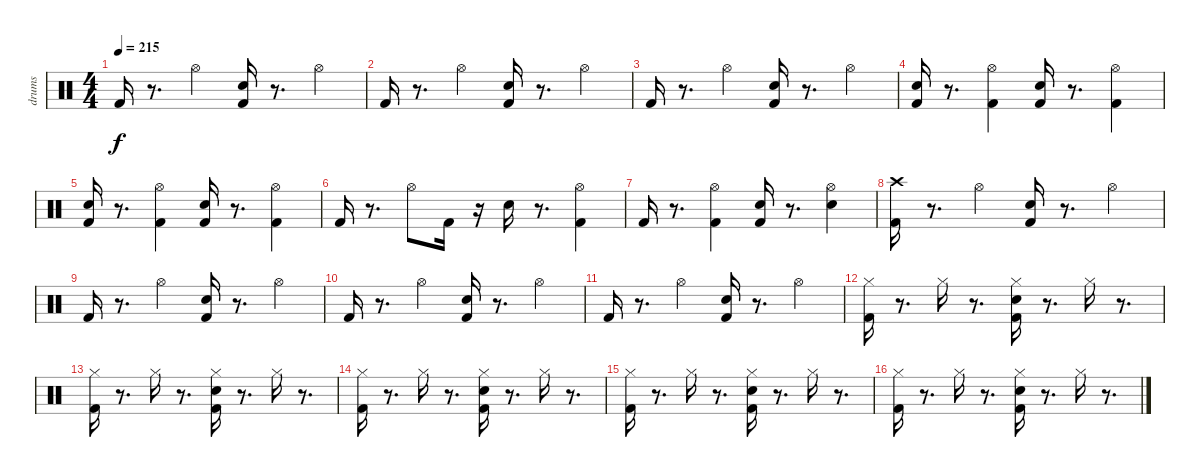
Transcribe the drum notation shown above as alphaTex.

\track ("drums" "drums") {instrument percussion}
\staff {score}
\articulation defaults
\ts (4 4)
\tempo 215
\clef neutral
\ks c "Kick (hit) 2".16{dy f}
r.8{d} "Hi-Hat (open)".4 ("Electric Snare (hit)" "Kick (hit) 2").16 r.8{d} "Hi-Hat (open)".4 |
"Kick (hit) 2".16 r.8{d} "Hi-Hat (open)".4 ("Electric Snare (hit)" "Kick (hit) 2").16 r.8{d} "Hi-Hat (open)".4 |
"Kick (hit) 2".16 r.8{d} "Hi-Hat (open)".4 ("Electric Snare (hit)" "Kick (hit) 2").16 r.8{d} "Hi-Hat (open)".4 |
("Kick (hit) 2" "Electric Snare (hit)").16 r.8{d} ("Hi-Hat (open)" "Kick (hit) 2").4 ("Kick (hit) 2" "Electric Snare (hit)").16 r.8{d} ("Hi-Hat (open)" "Kick (hit) 2").4 |
("Kick (hit) 2" "Electric Snare (hit)").16 r.8{d} ("Kick (hit) 2" "Hi-Hat (open)").4 ("Kick (hit) 2" "Electric Snare (hit)").16 r.8{d} ("Hi-Hat (open)" "Kick (hit) 2").4 |
"Kick (hit) 2".16 r.8{d} "Hi-Hat (open)".8 "Kick (hit) 2".16 r.16 "Electric Snare (hit)".16 r.8{d} ("Hi-Hat (open)" "Kick (hit) 2").4 |
"Kick (hit) 2".16 r.8{d} ("Hi-Hat (open)" "Kick (hit) 2").4 ("Electric Snare (hit)" "Kick (hit) 2").16 r.8{d} ("Hi-Hat (open)" "Electric Snare (hit)").4 |
("Crash high (hit)" "Kick (hit) 2").16 r.8{d} "Hi-Hat (open)".4 ("Electric Snare (hit)" "Kick (hit) 2").16 r.8{d} "Hi-Hat (open)".4 |
"Kick (hit) 2".16 r.8{d} "Hi-Hat (open)".4 ("Electric Snare (hit)" "Kick (hit) 2").16 r.8{d} "Hi-Hat (open)".4 |
"Kick (hit) 2".16 r.8{d} "Hi-Hat (open)".4 ("Electric Snare (hit)" "Kick (hit) 2").16 r.8{d} "Hi-Hat (open)".4 |
"Kick (hit) 2".16 r.8{d} "Hi-Hat (open)".4 ("Electric Snare (hit)" "Kick (hit) 2").16 r.8{d} "Hi-Hat (open)".4 |
("Kick (hit) 2" "Hi-Hat (closed)").16 r.8{d} "Hi-Hat (closed)".16 r.8{d} ("Electric Snare (hit)" "Kick (hit) 2" "Hi-Hat (closed)").16 r.8{d} "Hi-Hat (closed)".16 r.8{d} |
("Kick (hit) 2" "Hi-Hat (closed)").16 r.8{d} "Hi-Hat (closed)".16 r.8{d} ("Electric Snare (hit)" "Kick (hit) 2" "Hi-Hat (closed)").16 r.8{d} "Hi-Hat (closed)".16 r.8{d} |
("Kick (hit) 2" "Hi-Hat (closed)").16 r.8{d} "Hi-Hat (closed)".16 r.8{d} ("Electric Snare (hit)" "Kick (hit) 2" "Hi-Hat (closed)").16 r.8{d} "Hi-Hat (closed)".16 r.8{d} |
("Kick (hit) 2" "Hi-Hat (closed)").16 r.8{d} "Hi-Hat (closed)".16 r.8{d} ("Electric Snare (hit)" "Kick (hit) 2" "Hi-Hat (closed)").16 r.8{d} "Hi-Hat (closed)".16 r.8{d} |
("Kick (hit) 2" "Hi-Hat (closed)").16 r.8{d} "Hi-Hat (closed)".16 r.8{d} ("Electric Snare (hit)" "Kick (hit) 2" "Hi-Hat (closed)").16 r.8{d} "Hi-Hat (closed)".16 r.8{d}
